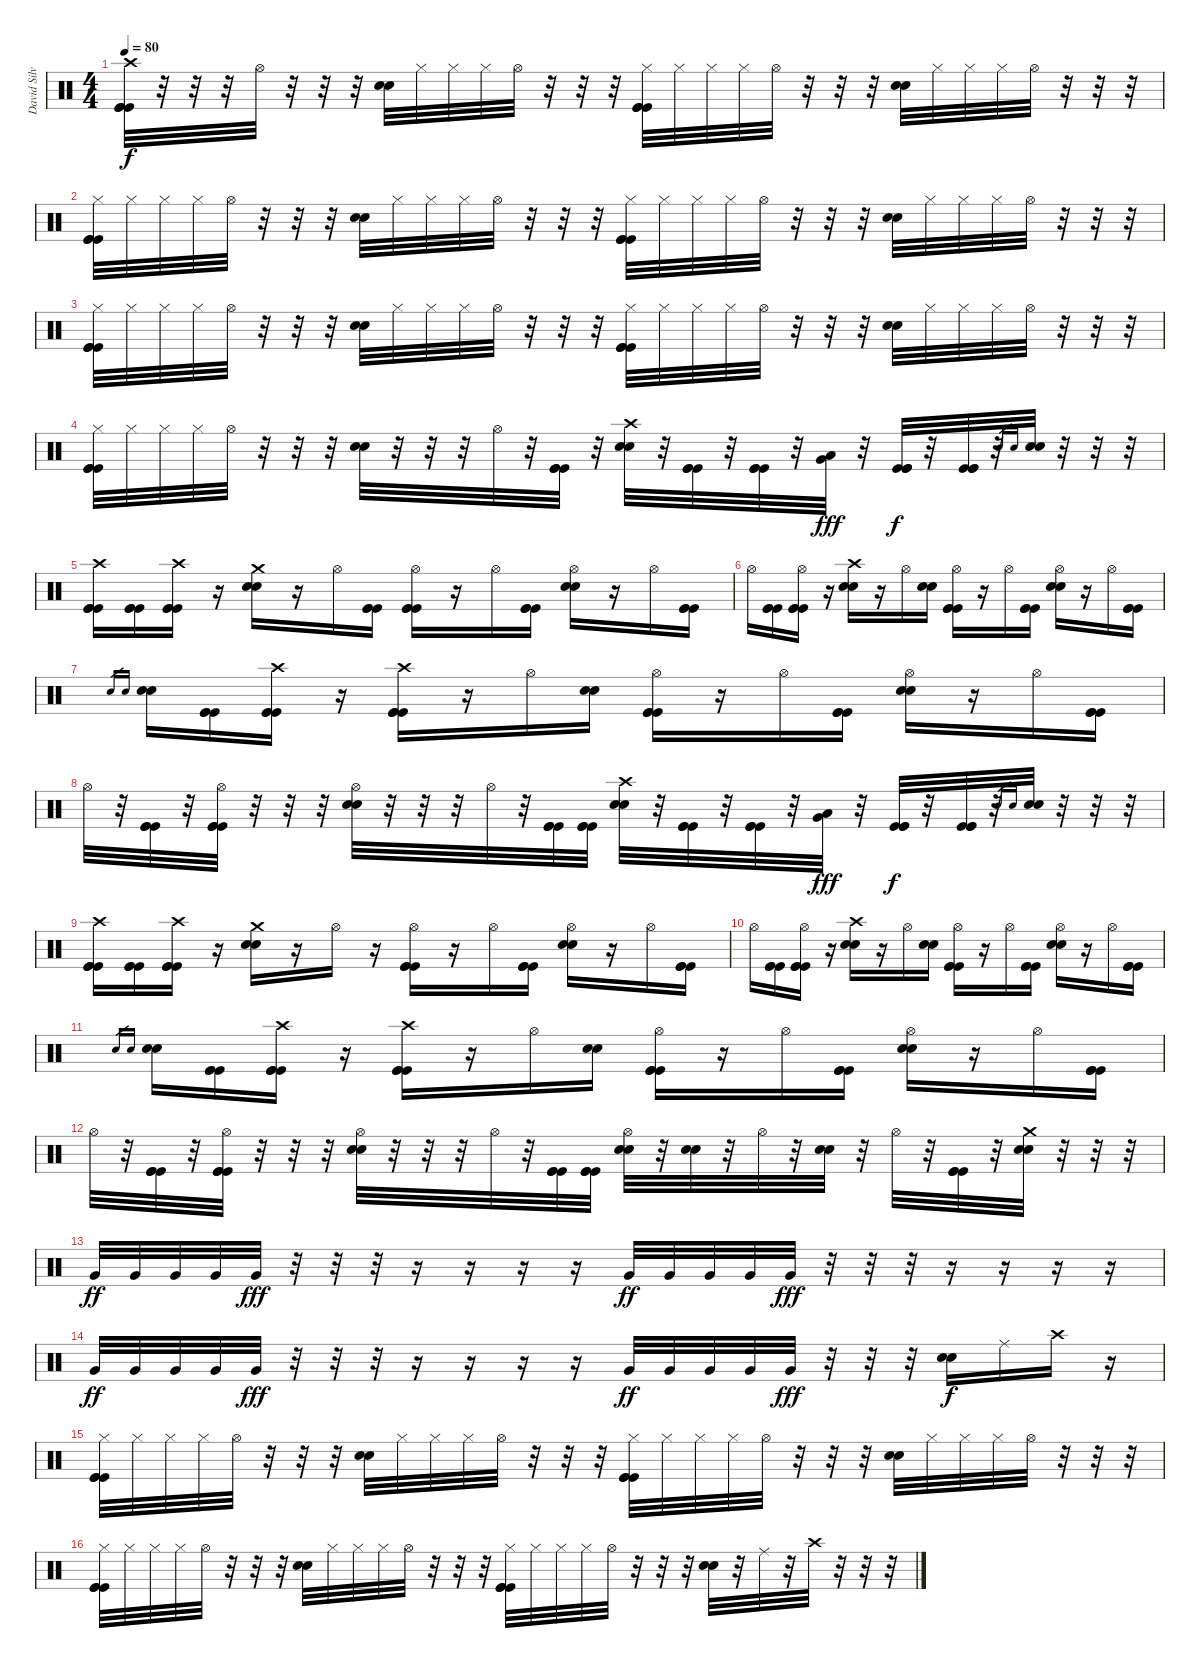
\track ("David Silveria (Drums)" "David Silv") {instrument percussion}
\staff {score}
\articulation defaults
\ts (4 4)
\tempo 80
\clef neutral
\ks c
("Crash high (hit)" "Kick (hit)" "Kick (hit)" "Kick (hit)").32{dy f} r.32 r.32 r.32 "Hi-Hat (open)".32 r.32 r.32 r.32 ("Snare (hit) 2" "Snare (hit) 2").32 "Hi-Hat (closed)".32 "Hi-Hat (closed)".32 "Hi-Hat (closed)".32 "Hi-Hat (open)".32 r.32 r.32 r.32 ("Hi-Hat (closed)" "Kick (hit)" "Kick (hit)" "Kick (hit)").32 "Hi-Hat (closed)".32 "Hi-Hat (closed)".32 "Hi-Hat (closed)".32 "Hi-Hat (open)".32 r.32 r.32 r.32 ("Snare (hit) 2" "Snare (hit) 2").32 "Hi-Hat (closed)".32 "Hi-Hat (closed)".32 "Hi-Hat (closed)".32 "Hi-Hat (open)".32 r.32 r.32 r.32 |
("Hi-Hat (closed)" "Kick (hit)" "Kick (hit)" "Kick (hit)").32 "Hi-Hat (closed)".32 "Hi-Hat (closed)".32 "Hi-Hat (closed)".32 "Hi-Hat (open)".32 r.32 r.32 r.32 ("Snare (hit) 2" "Snare (hit) 2").32 "Hi-Hat (closed)".32 "Hi-Hat (closed)".32 "Hi-Hat (closed)".32 "Hi-Hat (open)".32 r.32 r.32 r.32 ("Hi-Hat (closed)" "Kick (hit)" "Kick (hit)" "Kick (hit)").32 "Hi-Hat (closed)".32 "Hi-Hat (closed)".32 "Hi-Hat (closed)".32 "Hi-Hat (open)".32 r.32 r.32 r.32 ("Snare (hit) 2" "Snare (hit) 2").32 "Hi-Hat (closed)".32 "Hi-Hat (closed)".32 "Hi-Hat (closed)".32 "Hi-Hat (open)".32 r.32 r.32 r.32 |
("Hi-Hat (closed)" "Kick (hit)" "Kick (hit)" "Kick (hit)").32 "Hi-Hat (closed)".32 "Hi-Hat (closed)".32 "Hi-Hat (closed)".32 "Hi-Hat (open)".32 r.32 r.32 r.32 ("Snare (hit) 2" "Snare (hit) 2").32 "Hi-Hat (closed)".32 "Hi-Hat (closed)".32 "Hi-Hat (closed)".32 "Hi-Hat (open)".32 r.32 r.32 r.32 ("Hi-Hat (closed)" "Kick (hit)" "Kick (hit)" "Kick (hit)").32 "Hi-Hat (closed)".32 "Hi-Hat (closed)".32 "Hi-Hat (closed)".32 "Hi-Hat (open)".32 r.32 r.32 r.32 ("Snare (hit) 2" "Snare (hit) 2").32 "Hi-Hat (closed)".32 "Hi-Hat (closed)".32 "Hi-Hat (closed)".32 "Hi-Hat (open)".32 r.32 r.32 r.32 |
("Hi-Hat (closed)" "Kick (hit)" "Kick (hit)" "Kick (hit)").32 "Hi-Hat (closed)".32 "Hi-Hat (closed)".32 "Hi-Hat (closed)".32 "Hi-Hat (open)".32 r.32 r.32 r.32 ("Snare (hit) 2" "Snare (hit) 2").32 r.32 r.32 r.32 "Hi-Hat (open)".32 r.32 ("Kick (hit)" "Kick (hit)" "Kick (hit)").32 r.32 ("Crash high (hit)" "Snare (hit) 2" "Snare (hit) 2").32 r.32 ("Kick (hit)" "Kick (hit)" "Kick (hit)").32 r.32 ("Kick (hit)" "Kick (hit)" "Kick (hit)").32 r.32 ("Very Low Tom (hit)" "Low Tom (hit)").32{dy fff} r.32 ("Kick (hit)" "Kick (hit)" "Kick (hit)").32{dy f} r.32 ("Kick (hit)" "Kick (hit)" "Kick (hit)").32 r.32 "Snare (hit) 2".16{gr} "Snare (hit) 2".16{gr} ("Snare (hit) 2" "Snare (hit) 2").32 r.32 r.32 r.32 |
("Crash high (hit)" "Kick (hit)" "Kick (hit)" "Kick (hit)").16 ("Kick (hit)" "Kick (hit)" "Kick (hit)").16 ("Crash high (hit)" "Kick (hit)" "Kick (hit)" "Kick (hit)").16 r.16 ("Crash medium (hit)" "Snare (hit) 2" "Snare (hit) 2").16 r.16 "Hi-Hat (open)".16 ("Kick (hit)" "Kick (hit)" "Kick (hit)").16 ("Hi-Hat (open)" "Kick (hit)" "Kick (hit)" "Kick (hit)").16 r.16 "Hi-Hat (open)".16 ("Kick (hit)" "Kick (hit)" "Kick (hit)").16 ("Hi-Hat (open)" "Snare (hit) 2" "Snare (hit) 2").16 r.16 "Hi-Hat (open)".16 ("Kick (hit)" "Kick (hit)" "Kick (hit)").16 |
"Hi-Hat (open)".16 ("Kick (hit)" "Kick (hit)" "Kick (hit)").16 ("Hi-Hat (open)" "Kick (hit)" "Kick (hit)" "Kick (hit)").16 r.16 ("Crash high (hit)" "Snare (hit) 2" "Snare (hit) 2").16 r.16 "Hi-Hat (open)".16 ("Snare (hit) 2" "Snare (hit) 2").16 ("Hi-Hat (open)" "Kick (hit)" "Kick (hit)" "Kick (hit)").16 r.16 "Hi-Hat (open)".16 ("Kick (hit)" "Kick (hit)" "Kick (hit)").16 ("Hi-Hat (open)" "Snare (hit) 2" "Snare (hit) 2").16 r.16 "Hi-Hat (open)".16 ("Kick (hit)" "Kick (hit)" "Kick (hit)").16 |
"Snare (hit) 2".16{gr} "Snare (hit) 2".16{gr} ("Snare (hit) 2" "Snare (hit) 2").16 ("Kick (hit)" "Kick (hit)" "Kick (hit)").16 ("Crash high (hit)" "Kick (hit)" "Kick (hit)" "Kick (hit)").16 r.16 ("Crash high (hit)" "Kick (hit)" "Kick (hit)" "Kick (hit)").16 r.16 "Hi-Hat (open)".16 ("Snare (hit) 2" "Snare (hit) 2").16 ("Hi-Hat (open)" "Kick (hit)" "Kick (hit)" "Kick (hit)").16 r.16 "Hi-Hat (open)".16 ("Kick (hit)" "Kick (hit)" "Kick (hit)").16 ("Hi-Hat (open)" "Snare (hit) 2" "Snare (hit) 2").16 r.16 "Hi-Hat (open)".16 ("Kick (hit)" "Kick (hit)" "Kick (hit)").16 |
"Hi-Hat (open)".32 r.32 ("Kick (hit)" "Kick (hit)" "Kick (hit)").32 r.32 ("Hi-Hat (open)" "Kick (hit)" "Kick (hit)" "Kick (hit)").32 r.32 r.32 r.32 ("Hi-Hat (open)" "Snare (hit) 2" "Snare (hit) 2").32 r.32 r.32 r.32 "Hi-Hat (open)".32 r.32 ("Kick (hit)" "Kick (hit)" "Kick (hit)").32 ("Kick (hit)" "Kick (hit)" "Kick (hit)").32 ("Crash high (hit)" "Snare (hit) 2" "Snare (hit) 2").32 r.32 ("Kick (hit)" "Kick (hit)" "Kick (hit)").32 r.32 ("Kick (hit)" "Kick (hit)" "Kick (hit)").32 r.32 ("Very Low Tom (hit)" "Low Tom (hit)").32{dy fff} r.32 ("Kick (hit)" "Kick (hit)" "Kick (hit)").32{dy f} r.32 ("Kick (hit)" "Kick (hit)" "Kick (hit)").32 r.32 "Snare (hit) 2".16{gr} "Snare (hit) 2".16{gr} ("Snare (hit) 2" "Snare (hit) 2").32 r.32 r.32 r.32 |
("Crash high (hit)" "Kick (hit)" "Kick (hit)" "Kick (hit)").16 ("Kick (hit)" "Kick (hit)" "Kick (hit)").16 ("Crash high (hit)" "Kick (hit)" "Kick (hit)" "Kick (hit)").16 r.16 ("Crash medium (hit)" "Snare (hit) 2" "Snare (hit) 2").16 r.16 "Hi-Hat (open)".16 r.16 ("Hi-Hat (open)" "Kick (hit)" "Kick (hit)" "Kick (hit)").16 r.16 "Hi-Hat (open)".16 ("Kick (hit)" "Kick (hit)" "Kick (hit)").16 ("Hi-Hat (open)" "Snare (hit) 2" "Snare (hit) 2").16 r.16 "Hi-Hat (open)".16 ("Kick (hit)" "Kick (hit)" "Kick (hit)").16 |
"Hi-Hat (open)".16 ("Kick (hit)" "Kick (hit)" "Kick (hit)").16 ("Hi-Hat (open)" "Kick (hit)" "Kick (hit)" "Kick (hit)").16 r.16 ("Crash high (hit)" "Snare (hit) 2" "Snare (hit) 2").16 r.16 "Hi-Hat (open)".16 ("Snare (hit) 2" "Snare (hit) 2").16 ("Hi-Hat (open)" "Kick (hit)" "Kick (hit)" "Kick (hit)").16 r.16 "Hi-Hat (open)".16 ("Kick (hit)" "Kick (hit)" "Kick (hit)").16 ("Hi-Hat (open)" "Snare (hit) 2" "Snare (hit) 2").16 r.16 "Hi-Hat (open)".16 ("Kick (hit)" "Kick (hit)" "Kick (hit)").16 |
"Snare (hit) 2".16{gr} "Snare (hit) 2".16{gr} ("Snare (hit) 2" "Snare (hit) 2").16 ("Kick (hit)" "Kick (hit)" "Kick (hit)").16 ("Crash high (hit)" "Kick (hit)" "Kick (hit)" "Kick (hit)").16 r.16 ("Crash high (hit)" "Kick (hit)" "Kick (hit)" "Kick (hit)").16 r.16 "Hi-Hat (open)".16 ("Snare (hit) 2" "Snare (hit) 2").16 ("Hi-Hat (open)" "Kick (hit)" "Kick (hit)" "Kick (hit)").16 r.16 "Hi-Hat (open)".16 ("Kick (hit)" "Kick (hit)" "Kick (hit)").16 ("Hi-Hat (open)" "Snare (hit) 2" "Snare (hit) 2").16 r.16 "Hi-Hat (open)".16 ("Kick (hit)" "Kick (hit)" "Kick (hit)").16 |
"Hi-Hat (open)".32 r.32 ("Kick (hit)" "Kick (hit)" "Kick (hit)").32 r.32 ("Hi-Hat (open)" "Kick (hit)" "Kick (hit)" "Kick (hit)").32 r.32 r.32 r.32 ("Hi-Hat (open)" "Snare (hit) 2" "Snare (hit) 2").32 r.32 r.32 r.32 "Hi-Hat (open)".32 r.32 ("Kick (hit)" "Kick (hit)" "Kick (hit)").32 ("Kick (hit)" "Kick (hit)" "Kick (hit)").32 ("Hi-Hat (open)" "Snare (hit) 2" "Snare (hit) 2").32 r.32 ("Snare (hit) 2" "Snare (hit) 2").32 r.32 "Hi-Hat (open)".32 r.32 ("Snare (hit) 2" "Snare (hit) 2").32 r.32 "Hi-Hat (open)".32 r.32 ("Kick (hit)" "Kick (hit)" "Kick (hit)").32 r.32 ("Crash medium (hit)" "Snare (hit) 2" "Snare (hit) 2").32 r.32 r.32 r.32 |
"Very Low Tom (hit)".32{dy ff} "Very Low Tom (hit)".32 "Very Low Tom (hit)".32 "Very Low Tom (hit)".32 "Very Low Tom (hit)".32{dy fff} r.32 r.32 r.32 r.16 r.16 r.16 r.16 "Very Low Tom (hit)".32{dy ff} "Very Low Tom (hit)".32 "Very Low Tom (hit)".32 "Very Low Tom (hit)".32 "Very Low Tom (hit)".32{dy fff} r.32 r.32 r.32 r.16 r.16 r.16 r.16 |
"Very Low Tom (hit)".32{dy ff} "Very Low Tom (hit)".32 "Very Low Tom (hit)".32 "Very Low Tom (hit)".32 "Very Low Tom (hit)".32{dy fff} r.32 r.32 r.32 r.16 r.16 r.16 r.16 "Very Low Tom (hit)".32{dy ff} "Very Low Tom (hit)".32 "Very Low Tom (hit)".32 "Very Low Tom (hit)".32 "Very Low Tom (hit)".32{dy fff} r.32 r.32 r.32 ("Snare (hit) 2" "Snare (hit) 2").16{dy f} "Ride (middle)".16 "Crash high (hit)".16 r.16 |
("Hi-Hat (closed)" "Kick (hit)" "Kick (hit)" "Kick (hit)").32 "Hi-Hat (closed)".32 "Hi-Hat (closed)".32 "Hi-Hat (closed)".32 "Hi-Hat (open)".32 r.32 r.32 r.32 ("Snare (hit) 2" "Snare (hit) 2").32 "Hi-Hat (closed)".32 "Hi-Hat (closed)".32 "Hi-Hat (closed)".32 "Hi-Hat (open)".32 r.32 r.32 r.32 ("Hi-Hat (closed)" "Kick (hit)" "Kick (hit)" "Kick (hit)").32 "Hi-Hat (closed)".32 "Hi-Hat (closed)".32 "Hi-Hat (closed)".32 "Hi-Hat (open)".32 r.32 r.32 r.32 ("Snare (hit) 2" "Snare (hit) 2").32 "Hi-Hat (closed)".32 "Hi-Hat (closed)".32 "Hi-Hat (closed)".32 "Hi-Hat (open)".32 r.32 r.32 r.32 |
("Hi-Hat (closed)" "Kick (hit)" "Kick (hit)" "Kick (hit)").32 "Hi-Hat (closed)".32 "Hi-Hat (closed)".32 "Hi-Hat (closed)".32 "Hi-Hat (open)".32 r.32 r.32 r.32 ("Snare (hit) 2" "Snare (hit) 2").32 "Hi-Hat (closed)".32 "Hi-Hat (closed)".32 "Hi-Hat (closed)".32 "Hi-Hat (open)".32 r.32 r.32 r.32 ("Hi-Hat (closed)" "Kick (hit)" "Kick (hit)" "Kick (hit)").32 "Hi-Hat (closed)".32 "Hi-Hat (closed)".32 "Hi-Hat (closed)".32 "Hi-Hat (open)".32 r.32 r.32 r.32 ("Snare (hit) 2" "Snare (hit) 2").32 r.32 "Ride (middle)".32 r.32 "Crash high (hit)".32 r.32 r.32 r.32
